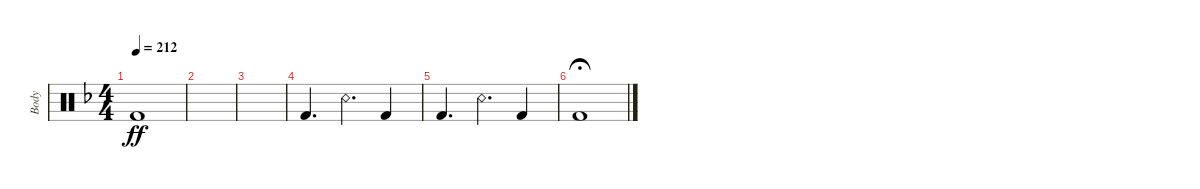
\defaultSystemsLayout 2
\bracketExtendMode groupsimilarinstruments
\otherSystemsTrackNameOrientation horizontal
\track ("Body" "Body") {instrument percussion}
\staff {score}
\articulation defaults
\ts (4 4)
\scale
1.05422
\tempo 212
\accidentals auto
\clef neutral
\ottava regular
\simile none
\scale
0.333333
\ks dminor "Kick (hit) 2"{acc forcenatural}.1{dy ff beam Up}
|
\scale
0.945776
\scale
0.333333 |
\scale
1.04804
\scale
0.333333 |
\scale
0.951961
\scale
0.333333 "Kick (hit) 2"{acc forcenatural}.4{d beam Up} "Snare (rim shot)"{acc forcenatural}.4{d beam Down} "Kick (hit) 2"{acc forcenatural}.4{beam Up} |
\scale
1.04804 "Kick (hit) 2"{acc forcenatural}.4{d beam Up} "Snare (rim shot)"{acc forcenatural}.4{d beam Down} "Kick (hit) 2"{acc forcenatural}.4{beam Up} |
\scale
0.951961 "Kick (hit) 2"{acc forcenatural}.1{fermata (medium 0.5) beam Up} |
\scale
1.04804 |
\scale
0.951961 |
\scale
1.04804 |
\scale
0.951961 |
\scale
1.04804 |
\scale
0.951961 |
\scale
1.12361 |
\scale
0.876394
